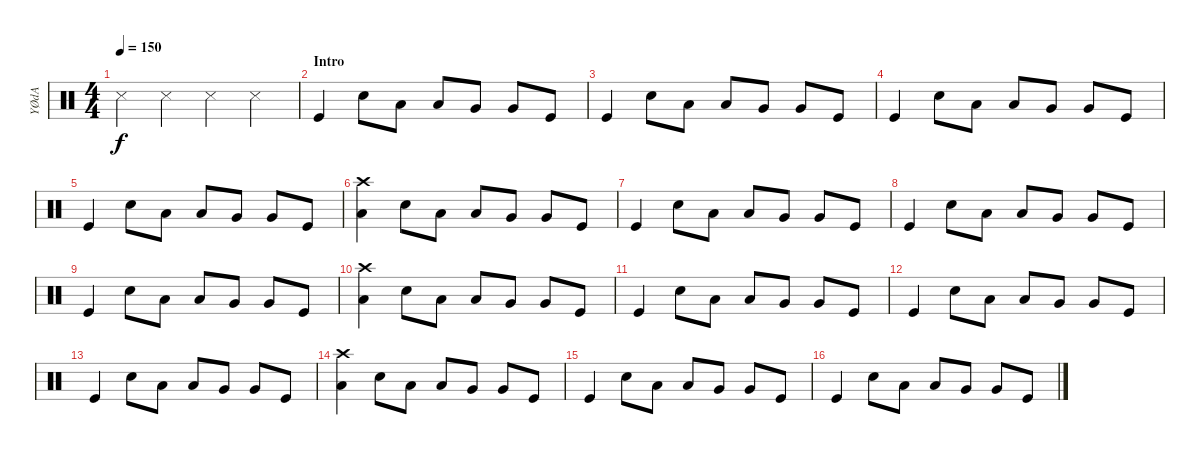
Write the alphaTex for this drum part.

\track ("YØdA" "YØdA") {instrument percussion}
\staff {score}
\articulation defaults
\ts (4 4)
\tempo 150
\clef neutral
\ks c "Snare (side stick) 3".4{dy f} "Snare (side stick) 3".4 "Snare (side stick) 3".4 "Snare (side stick) 3".4
|
\section ("" "Intro")
"Kick (hit)".4 "Electric Snare (hit)".8 "Low Tom (hit)".8 "Low Tom (hit)".8 "Very Low Tom (hit)".8 "Very Low Tom (hit)".8 "Kick (hit)".8 |
"Kick (hit)".4 "Electric Snare (hit)".8 "Low Tom (hit)".8 "Low Tom (hit)".8 "Very Low Tom (hit)".8 "Very Low Tom (hit)".8 "Kick (hit)".8 |
"Kick (hit)".4 "Electric Snare (hit)".8 "Low Tom (hit)".8 "Low Tom (hit)".8 "Very Low Tom (hit)".8 "Very Low Tom (hit)".8 "Kick (hit)".8 |
"Kick (hit)".4 "Electric Snare (hit)".8 "Low Tom (hit)".8 "Low Tom (hit)".8 "Very Low Tom (hit)".8 "Very Low Tom (hit)".8 "Kick (hit)".8 |
("Crash high (hit)" "Low Tom (hit)").4 "Electric Snare (hit)".8 "Low Tom (hit)".8 "Low Tom (hit)".8 "Very Low Tom (hit)".8 "Very Low Tom (hit)".8 "Kick (hit)".8 |
"Kick (hit)".4 "Electric Snare (hit)".8 "Low Tom (hit)".8 "Low Tom (hit)".8 "Very Low Tom (hit)".8 "Very Low Tom (hit)".8 "Kick (hit)".8 |
"Kick (hit)".4 "Electric Snare (hit)".8 "Low Tom (hit)".8 "Low Tom (hit)".8 "Very Low Tom (hit)".8 "Very Low Tom (hit)".8 "Kick (hit)".8 |
"Kick (hit)".4 "Electric Snare (hit)".8 "Low Tom (hit)".8 "Low Tom (hit)".8 "Very Low Tom (hit)".8 "Very Low Tom (hit)".8 "Kick (hit)".8 |
("Crash high (hit)" "Low Tom (hit)").4 "Electric Snare (hit)".8 "Low Tom (hit)".8 "Low Tom (hit)".8 "Very Low Tom (hit)".8 "Very Low Tom (hit)".8 "Kick (hit)".8 |
"Kick (hit)".4 "Electric Snare (hit)".8 "Low Tom (hit)".8 "Low Tom (hit)".8 "Very Low Tom (hit)".8 "Very Low Tom (hit)".8 "Kick (hit)".8 |
"Kick (hit)".4 "Electric Snare (hit)".8 "Low Tom (hit)".8 "Low Tom (hit)".8 "Very Low Tom (hit)".8 "Very Low Tom (hit)".8 "Kick (hit)".8 |
"Kick (hit)".4 "Electric Snare (hit)".8 "Low Tom (hit)".8 "Low Tom (hit)".8 "Very Low Tom (hit)".8 "Very Low Tom (hit)".8 "Kick (hit)".8 |
("Crash high (hit)" "Low Tom (hit)").4 "Electric Snare (hit)".8 "Low Tom (hit)".8 "Low Tom (hit)".8 "Very Low Tom (hit)".8 "Very Low Tom (hit)".8 "Kick (hit)".8 |
"Kick (hit)".4 "Electric Snare (hit)".8 "Low Tom (hit)".8 "Low Tom (hit)".8 "Very Low Tom (hit)".8 "Very Low Tom (hit)".8 "Kick (hit)".8 |
"Kick (hit)".4 "Electric Snare (hit)".8 "Low Tom (hit)".8 "Low Tom (hit)".8 "Very Low Tom (hit)".8 "Very Low Tom (hit)".8 "Kick (hit)".8
